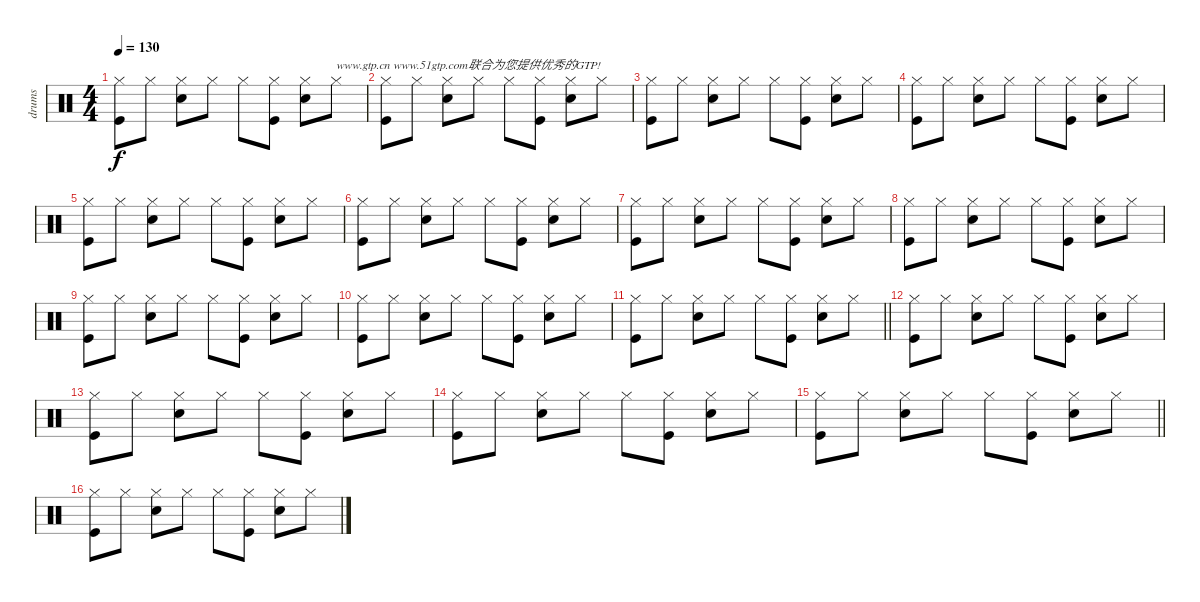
\track ("drums" "drums") {instrument percussion}
\staff {score}
\articulation defaults
\ts (4 4)
\tempo 130
\clef neutral
\ks c
("Hi-Hat (closed)" "Kick (hit)").8{dy f} "Hi-Hat (closed)".8 ("Hi-Hat (closed)" "Snare (hit) 2").8 "Hi-Hat (closed)".8 "Hi-Hat (closed)".8 ("Hi-Hat (closed)" "Kick (hit)").8 ("Hi-Hat (closed)" "Snare (hit) 2").8 "Hi-Hat (closed)".8{txt "www.gtp.cn www.51gtp.com联合为您提供优秀的GTP!"} |
("Hi-Hat (closed)" "Kick (hit)").8 "Hi-Hat (closed)".8 ("Hi-Hat (closed)" "Snare (hit) 2").8 "Hi-Hat (closed)".8 "Hi-Hat (closed)".8 ("Hi-Hat (closed)" "Kick (hit)").8 ("Hi-Hat (closed)" "Snare (hit) 2").8 "Hi-Hat (closed)".8 |
("Hi-Hat (closed)" "Kick (hit)").8 "Hi-Hat (closed)".8 ("Hi-Hat (closed)" "Snare (hit) 2").8 "Hi-Hat (closed)".8 "Hi-Hat (closed)".8 ("Hi-Hat (closed)" "Kick (hit)").8 ("Hi-Hat (closed)" "Snare (hit) 2").8 "Hi-Hat (closed)".8 |
("Hi-Hat (closed)" "Kick (hit)").8 "Hi-Hat (closed)".8 ("Hi-Hat (closed)" "Snare (hit) 2").8 "Hi-Hat (closed)".8 "Hi-Hat (closed)".8 ("Hi-Hat (closed)" "Kick (hit)").8 ("Hi-Hat (closed)" "Snare (hit) 2").8 "Hi-Hat (closed)".8 |
("Hi-Hat (closed)" "Kick (hit)").8 "Hi-Hat (closed)".8 ("Hi-Hat (closed)" "Snare (hit) 2").8 "Hi-Hat (closed)".8 "Hi-Hat (closed)".8 ("Hi-Hat (closed)" "Kick (hit)").8 ("Hi-Hat (closed)" "Snare (hit) 2").8 "Hi-Hat (closed)".8 |
("Hi-Hat (closed)" "Kick (hit)").8 "Hi-Hat (closed)".8 ("Hi-Hat (closed)" "Snare (hit) 2").8 "Hi-Hat (closed)".8 "Hi-Hat (closed)".8 ("Hi-Hat (closed)" "Kick (hit)").8 ("Hi-Hat (closed)" "Snare (hit) 2").8 "Hi-Hat (closed)".8 |
("Hi-Hat (closed)" "Kick (hit)").8 "Hi-Hat (closed)".8 ("Hi-Hat (closed)" "Snare (hit) 2").8 "Hi-Hat (closed)".8 "Hi-Hat (closed)".8 ("Hi-Hat (closed)" "Kick (hit)").8 ("Hi-Hat (closed)" "Snare (hit) 2").8 "Hi-Hat (closed)".8 |
("Hi-Hat (closed)" "Kick (hit)").8 "Hi-Hat (closed)".8 ("Hi-Hat (closed)" "Snare (hit) 2").8 "Hi-Hat (closed)".8 "Hi-Hat (closed)".8 ("Hi-Hat (closed)" "Kick (hit)").8 ("Hi-Hat (closed)" "Snare (hit) 2").8 "Hi-Hat (closed)".8 |
("Hi-Hat (closed)" "Kick (hit)").8 "Hi-Hat (closed)".8 ("Hi-Hat (closed)" "Snare (hit) 2").8 "Hi-Hat (closed)".8 "Hi-Hat (closed)".8 ("Hi-Hat (closed)" "Kick (hit)").8 ("Hi-Hat (closed)" "Snare (hit) 2").8 "Hi-Hat (closed)".8 |
("Hi-Hat (closed)" "Kick (hit)").8 "Hi-Hat (closed)".8 ("Hi-Hat (closed)" "Snare (hit) 2").8 "Hi-Hat (closed)".8 "Hi-Hat (closed)".8 ("Hi-Hat (closed)" "Kick (hit)").8 ("Hi-Hat (closed)" "Snare (hit) 2").8 "Hi-Hat (closed)".8 |
\barLineRight lightlight
("Hi-Hat (closed)" "Kick (hit)").8 "Hi-Hat (closed)".8 ("Hi-Hat (closed)" "Snare (hit) 2").8 "Hi-Hat (closed)".8 "Hi-Hat (closed)".8 ("Hi-Hat (closed)" "Kick (hit)").8 ("Hi-Hat (closed)" "Snare (hit) 2").8 "Hi-Hat (closed)".8 |
("Hi-Hat (closed)" "Kick (hit)").8 "Hi-Hat (closed)".8 ("Hi-Hat (closed)" "Snare (hit) 2").8 "Hi-Hat (closed)".8 "Hi-Hat (closed)".8 ("Hi-Hat (closed)" "Kick (hit)").8 ("Hi-Hat (closed)" "Snare (hit) 2").8 "Hi-Hat (closed)".8 |
("Hi-Hat (closed)" "Kick (hit)").8 "Hi-Hat (closed)".8 ("Hi-Hat (closed)" "Snare (hit) 2").8 "Hi-Hat (closed)".8 "Hi-Hat (closed)".8 ("Hi-Hat (closed)" "Kick (hit)").8 ("Hi-Hat (closed)" "Snare (hit) 2").8 "Hi-Hat (closed)".8 |
("Hi-Hat (closed)" "Kick (hit)").8 "Hi-Hat (closed)".8 ("Hi-Hat (closed)" "Snare (hit) 2").8 "Hi-Hat (closed)".8 "Hi-Hat (closed)".8 ("Hi-Hat (closed)" "Kick (hit)").8 ("Hi-Hat (closed)" "Snare (hit) 2").8 "Hi-Hat (closed)".8 |
\barLineRight lightlight
("Hi-Hat (closed)" "Kick (hit)").8 "Hi-Hat (closed)".8 ("Hi-Hat (closed)" "Snare (hit) 2").8 "Hi-Hat (closed)".8 "Hi-Hat (closed)".8 ("Hi-Hat (closed)" "Kick (hit)").8 ("Hi-Hat (closed)" "Snare (hit) 2").8 "Hi-Hat (closed)".8 |
("Hi-Hat (closed)" "Kick (hit)").8 "Hi-Hat (closed)".8 ("Hi-Hat (closed)" "Snare (hit) 2").8 "Hi-Hat (closed)".8 "Hi-Hat (closed)".8 ("Hi-Hat (closed)" "Kick (hit)").8 ("Hi-Hat (closed)" "Snare (hit) 2").8 "Hi-Hat (closed)".8
